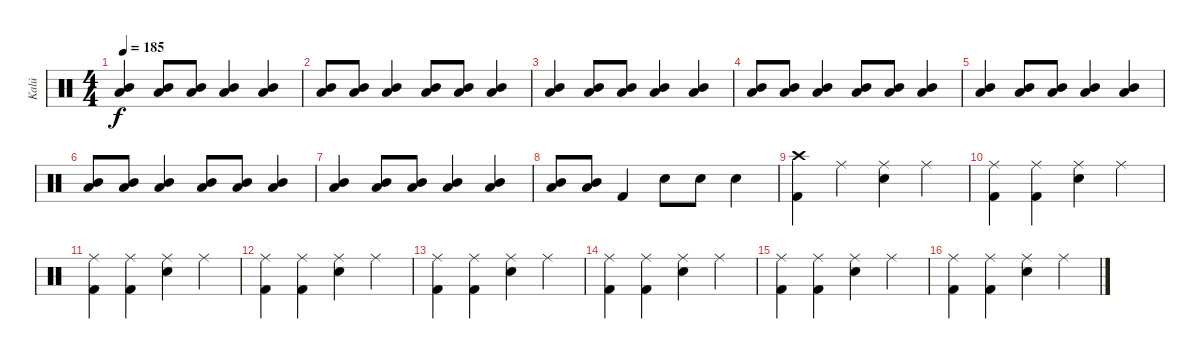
\track ("Kalú" "Kalú") {instrument percussion}
\staff {score}
\articulation defaults
\ts (4 4)
\tempo 185
\clef neutral
\ks c
("Mid Tom (hit)" "Low Floor Tom (hit)").4{dy f} ("Mid Tom (hit)" "Low Floor Tom (hit)").8 ("Mid Tom (hit)" "Low Floor Tom (hit)").8 ("Mid Tom (hit)" "Low Floor Tom (hit)").4 ("Mid Tom (hit)" "Low Floor Tom (hit)").4 |
("Mid Tom (hit)" "Low Floor Tom (hit)").8 ("Mid Tom (hit)" "Low Floor Tom (hit)").8 ("Mid Tom (hit)" "Low Floor Tom (hit)").4 ("Mid Tom (hit)" "Low Floor Tom (hit)").8 ("Mid Tom (hit)" "Low Floor Tom (hit)").8 ("Mid Tom (hit)" "Low Floor Tom (hit)").4 |
("Mid Tom (hit)" "Low Floor Tom (hit)").4 ("Mid Tom (hit)" "Low Floor Tom (hit)").8 ("Mid Tom (hit)" "Low Floor Tom (hit)").8 ("Mid Tom (hit)" "Low Floor Tom (hit)").4 ("Mid Tom (hit)" "Low Floor Tom (hit)").4 |
("Mid Tom (hit)" "Low Floor Tom (hit)").8 ("Mid Tom (hit)" "Low Floor Tom (hit)").8 ("Mid Tom (hit)" "Low Floor Tom (hit)").4 ("Mid Tom (hit)" "Low Floor Tom (hit)").8 ("Mid Tom (hit)" "Low Floor Tom (hit)").8 ("Mid Tom (hit)" "Low Floor Tom (hit)").4 |
("Mid Tom (hit)" "Low Floor Tom (hit)").4 ("Mid Tom (hit)" "Low Floor Tom (hit)").8 ("Mid Tom (hit)" "Low Floor Tom (hit)").8 ("Mid Tom (hit)" "Low Floor Tom (hit)").4 ("Mid Tom (hit)" "Low Floor Tom (hit)").4 |
("Mid Tom (hit)" "Low Floor Tom (hit)").8 ("Mid Tom (hit)" "Low Floor Tom (hit)").8 ("Mid Tom (hit)" "Low Floor Tom (hit)").4 ("Mid Tom (hit)" "Low Floor Tom (hit)").8 ("Mid Tom (hit)" "Low Floor Tom (hit)").8 ("Mid Tom (hit)" "Low Floor Tom (hit)").4 |
("Mid Tom (hit)" "Low Floor Tom (hit)").4 ("Mid Tom (hit)" "Low Floor Tom (hit)").8 ("Mid Tom (hit)" "Low Floor Tom (hit)").8 ("Mid Tom (hit)" "Low Floor Tom (hit)").4 ("Mid Tom (hit)" "Low Floor Tom (hit)").4 |
("Mid Tom (hit)" "Low Floor Tom (hit)").8 ("Mid Tom (hit)" "Low Floor Tom (hit)").8 "Kick (hit) 2".4 "Snare (hit) 2".8 "Snare (hit) 2".8 "Snare (hit) 2".4 |
("Crash high (hit)" "Kick (hit) 2").4 "Ride (middle)".4 ("Ride (middle)" "Snare (hit) 2").4 "Ride (middle)".4 |
("Ride (middle)" "Kick (hit) 2").4 ("Ride (middle)" "Kick (hit) 2").4 ("Ride (middle)" "Snare (hit) 2").4 "Ride (middle)".4 |
("Ride (middle)" "Kick (hit) 2").4 ("Ride (middle)" "Kick (hit) 2").4 ("Ride (middle)" "Snare (hit) 2").4 "Ride (middle)".4 |
("Ride (middle)" "Kick (hit) 2").4 ("Ride (middle)" "Kick (hit) 2").4 ("Ride (middle)" "Snare (hit) 2").4 "Ride (middle)".4 |
("Ride (middle)" "Kick (hit) 2").4 ("Ride (middle)" "Kick (hit) 2").4 ("Ride (middle)" "Snare (hit) 2").4 "Ride (middle)".4 |
("Ride (middle)" "Kick (hit) 2").4 ("Ride (middle)" "Kick (hit) 2").4 ("Ride (middle)" "Snare (hit) 2").4 "Ride (middle)".4 |
("Ride (middle)" "Kick (hit) 2").4 ("Ride (middle)" "Kick (hit) 2").4 ("Ride (middle)" "Snare (hit) 2").4 "Ride (middle)".4 |
("Ride (middle)" "Kick (hit) 2").4 ("Ride (middle)" "Kick (hit) 2").4 ("Ride (middle)" "Snare (hit) 2").4 "Ride (middle)".4
